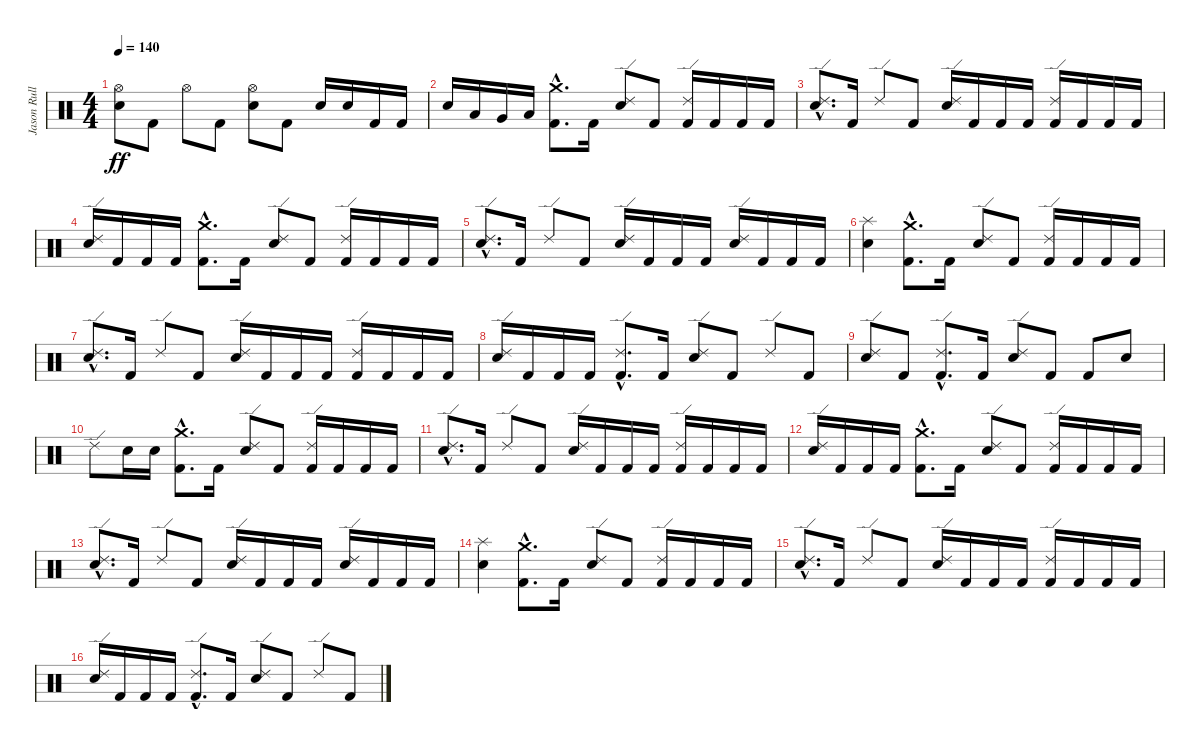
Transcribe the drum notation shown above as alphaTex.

\track ("Jason Rullo" "Jason Rull") {instrument percussion}
\staff {score}
\articulation defaults
\ts (4 4)
\tempo 140
\clef neutral
\ks c
("Electric Snare (hit)" "Hi-Hat (open)").8{dy ff} "Kick (hit) 2".8 "Hi-Hat (open)".8 "Kick (hit) 2".8 ("Electric Snare (hit)" "Hi-Hat (open)").8 "Kick (hit) 2".8 "Electric Snare (hit)".16 "Electric Snare (hit)".16 "Kick (hit) 2".16 "Kick (hit) 2".16 |
"Electric Snare (hit)".16 "Low Tom (hit)".16 "Very Low Tom (hit)".16 "Low Floor Tom (hit)".16 ("Crash medium (hit)"{hac} "Kick (hit) 2"{hac}).8{d} "Kick (hit) 2".16 ("Electric Snare (hit)" "Ride (edge) 2").8 "Kick (hit) 2".8 ("Ride (edge) 2" "Kick (hit) 2").16 "Kick (hit) 2".16 "Kick (hit) 2".16 "Kick (hit) 2".16 |
("Electric Snare (hit)"{hac} "Ride (edge) 2"{hac}).8{d} "Kick (hit) 2".16 "Ride (edge) 2".8 "Kick (hit) 2".8 ("Electric Snare (hit)" "Ride (edge) 2").16 "Kick (hit) 2".16 "Kick (hit) 2".16 "Kick (hit) 2".16 ("Ride (edge) 2" "Kick (hit) 2").16 "Kick (hit) 2".16 "Kick (hit) 2".16 "Kick (hit) 2".16 |
("Electric Snare (hit)" "Ride (edge) 2").16 "Kick (hit) 2".16 "Kick (hit) 2".16 "Kick (hit) 2".16 ("Crash medium (hit)"{hac} "Kick (hit) 2"{hac}).8{d} "Kick (hit) 2".16 ("Electric Snare (hit)" "Ride (edge) 2").8 "Kick (hit) 2".8 ("Ride (edge) 2" "Kick (hit) 2").16 "Kick (hit) 2".16 "Kick (hit) 2".16 "Kick (hit) 2".16 |
("Electric Snare (hit)"{hac} "Ride (edge) 2"{hac}).8{d} "Kick (hit) 2".16 "Ride (edge) 2".8 "Kick (hit) 2".8 ("Electric Snare (hit)" "Ride (edge) 2").16 "Kick (hit) 2".16 "Kick (hit) 2".16 "Kick (hit) 2".16 ("Electric Snare (hit)" "Ride (edge) 2").16 "Kick (hit) 2".16 "Kick (hit) 2".16 "Kick (hit) 2".16 |
("Electric Snare (hit)" "Splash (hit)").4 ("Crash medium (hit)"{hac} "Kick (hit) 2"{hac}).8{d} "Kick (hit) 2".16 ("Electric Snare (hit)" "Ride (edge) 2").8 "Kick (hit) 2".8 ("Ride (edge) 2" "Kick (hit) 2").16 "Kick (hit) 2".16 "Kick (hit) 2".16 "Kick (hit) 2".16 |
("Electric Snare (hit)"{hac} "Ride (edge) 2"{hac}).8{d} "Kick (hit) 2".16 "Ride (edge) 2".8 "Kick (hit) 2".8 ("Electric Snare (hit)" "Ride (edge) 2").16 "Kick (hit) 2".16 "Kick (hit) 2".16 "Kick (hit) 2".16 ("Ride (edge) 2" "Kick (hit) 2").16 "Kick (hit) 2".16 "Kick (hit) 2".16 "Kick (hit) 2".16 |
("Electric Snare (hit)" "Ride (edge) 2").16 "Kick (hit) 2".16 "Kick (hit) 2".16 "Kick (hit) 2".16 ("Kick (hit) 2"{hac} "Ride (edge) 2"{hac}).8{d} "Kick (hit) 2".16 ("Electric Snare (hit)" "Ride (edge) 2").8 "Kick (hit) 2".8 "Ride (edge) 2".8 "Kick (hit) 2".8 |
("Electric Snare (hit)" "Ride (edge) 2").8 "Kick (hit) 2".8 ("Kick (hit) 2"{hac} "Ride (edge) 2"{hac}).8{d} "Kick (hit) 2".16 ("Electric Snare (hit)" "Ride (edge) 2").8 "Kick (hit) 2".8 "Kick (hit) 2".8 "Electric Snare (hit)".8 |
"Ride (edge) 2".8 "Electric Snare (hit)".16 "Electric Snare (hit)".16 ("Crash medium (hit)"{hac} "Kick (hit) 2"{hac}).8{d} "Kick (hit) 2".16 ("Electric Snare (hit)" "Ride (edge) 2").8 "Kick (hit) 2".8 ("Ride (edge) 2" "Kick (hit) 2").16 "Kick (hit) 2".16 "Kick (hit) 2".16 "Kick (hit) 2".16 |
("Electric Snare (hit)"{hac} "Ride (edge) 2"{hac}).8{d} "Kick (hit) 2".16 "Ride (edge) 2".8 "Kick (hit) 2".8 ("Electric Snare (hit)" "Ride (edge) 2").16 "Kick (hit) 2".16 "Kick (hit) 2".16 "Kick (hit) 2".16 ("Ride (edge) 2" "Kick (hit) 2").16 "Kick (hit) 2".16 "Kick (hit) 2".16 "Kick (hit) 2".16 |
("Electric Snare (hit)" "Ride (edge) 2").16 "Kick (hit) 2".16 "Kick (hit) 2".16 "Kick (hit) 2".16 ("Crash medium (hit)"{hac} "Kick (hit) 2"{hac}).8{d} "Kick (hit) 2".16 ("Electric Snare (hit)" "Ride (edge) 2").8 "Kick (hit) 2".8 ("Ride (edge) 2" "Kick (hit) 2").16 "Kick (hit) 2".16 "Kick (hit) 2".16 "Kick (hit) 2".16 |
("Electric Snare (hit)"{hac} "Ride (edge) 2"{hac}).8{d} "Kick (hit) 2".16 "Ride (edge) 2".8 "Kick (hit) 2".8 ("Electric Snare (hit)" "Ride (edge) 2").16 "Kick (hit) 2".16 "Kick (hit) 2".16 "Kick (hit) 2".16 ("Electric Snare (hit)" "Ride (edge) 2").16 "Kick (hit) 2".16 "Kick (hit) 2".16 "Kick (hit) 2".16 |
("Electric Snare (hit)" "Splash (hit)").4 ("Crash medium (hit)"{hac} "Kick (hit) 2"{hac}).8{d} "Kick (hit) 2".16 ("Electric Snare (hit)" "Ride (edge) 2").8 "Kick (hit) 2".8 ("Ride (edge) 2" "Kick (hit) 2").16 "Kick (hit) 2".16 "Kick (hit) 2".16 "Kick (hit) 2".16 |
("Electric Snare (hit)"{hac} "Ride (edge) 2"{hac}).8{d} "Kick (hit) 2".16 "Ride (edge) 2".8 "Kick (hit) 2".8 ("Electric Snare (hit)" "Ride (edge) 2").16 "Kick (hit) 2".16 "Kick (hit) 2".16 "Kick (hit) 2".16 ("Ride (edge) 2" "Kick (hit) 2").16 "Kick (hit) 2".16 "Kick (hit) 2".16 "Kick (hit) 2".16 |
("Electric Snare (hit)" "Ride (edge) 2").16 "Kick (hit) 2".16 "Kick (hit) 2".16 "Kick (hit) 2".16 ("Kick (hit) 2"{hac} "Ride (edge) 2"{hac}).8{d} "Kick (hit) 2".16 ("Electric Snare (hit)" "Ride (edge) 2").8 "Kick (hit) 2".8 "Ride (edge) 2".8 "Kick (hit) 2".8
